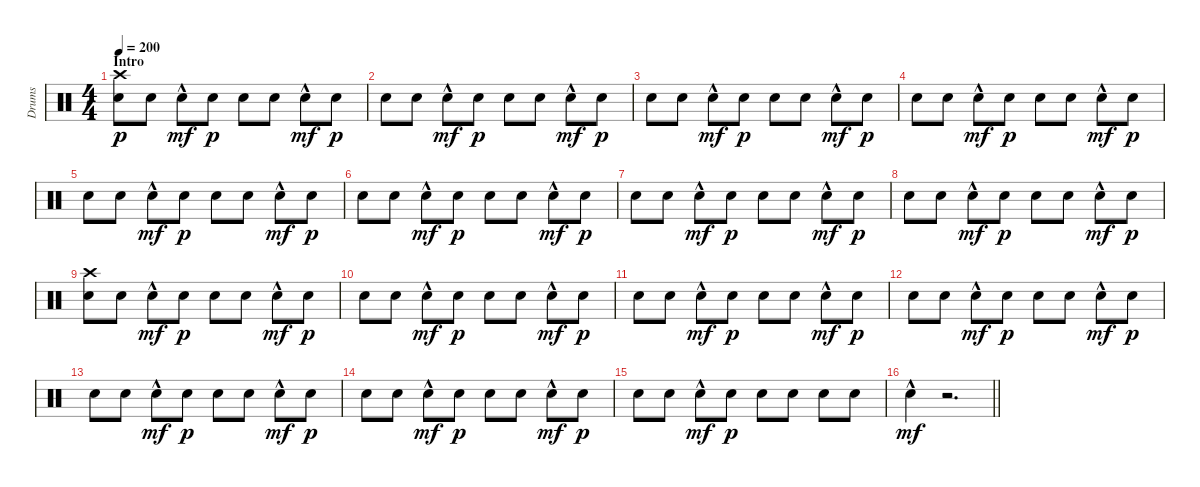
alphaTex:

\track ("Drums" "Drums") {instrument percussion}
\staff {score}
\articulation defaults
\ts (4 4)
\section ("" "Intro")
\tempo 200
\clef neutral
\ks c
("Crash high (hit)" "Electric Snare (hit)").8{dy p} "Electric Snare (hit)".8 "Electric Snare (hit)"{hac}.8{dy mf} "Electric Snare (hit)".8{dy p} "Electric Snare (hit)".8 "Electric Snare (hit)".8 "Electric Snare (hit)"{hac}.8{dy mf} "Electric Snare (hit)".8{dy p} |
"Electric Snare (hit)".8 "Electric Snare (hit)".8 "Electric Snare (hit)"{hac}.8{dy mf} "Electric Snare (hit)".8{dy p} "Electric Snare (hit)".8 "Electric Snare (hit)".8 "Electric Snare (hit)"{hac}.8{dy mf} "Electric Snare (hit)".8{dy p} |
"Electric Snare (hit)".8 "Electric Snare (hit)".8 "Electric Snare (hit)"{hac}.8{dy mf} "Electric Snare (hit)".8{dy p} "Electric Snare (hit)".8 "Electric Snare (hit)".8 "Electric Snare (hit)"{hac}.8{dy mf} "Electric Snare (hit)".8{dy p} |
"Electric Snare (hit)".8 "Electric Snare (hit)".8 "Electric Snare (hit)"{hac}.8{dy mf} "Electric Snare (hit)".8{dy p} "Electric Snare (hit)".8 "Electric Snare (hit)".8 "Electric Snare (hit)"{hac}.8{dy mf} "Electric Snare (hit)".8{dy p} |
"Electric Snare (hit)".8 "Electric Snare (hit)".8 "Electric Snare (hit)"{hac}.8{dy mf} "Electric Snare (hit)".8{dy p} "Electric Snare (hit)".8 "Electric Snare (hit)".8 "Electric Snare (hit)"{hac}.8{dy mf} "Electric Snare (hit)".8{dy p} |
"Electric Snare (hit)".8 "Electric Snare (hit)".8 "Electric Snare (hit)"{hac}.8{dy mf} "Electric Snare (hit)".8{dy p} "Electric Snare (hit)".8 "Electric Snare (hit)".8 "Electric Snare (hit)"{hac}.8{dy mf} "Electric Snare (hit)".8{dy p} |
"Electric Snare (hit)".8 "Electric Snare (hit)".8 "Electric Snare (hit)"{hac}.8{dy mf} "Electric Snare (hit)".8{dy p} "Electric Snare (hit)".8 "Electric Snare (hit)".8 "Electric Snare (hit)"{hac}.8{dy mf} "Electric Snare (hit)".8{dy p} |
"Electric Snare (hit)".8 "Electric Snare (hit)".8 "Electric Snare (hit)"{hac}.8{dy mf} "Electric Snare (hit)".8{dy p} "Electric Snare (hit)".8 "Electric Snare (hit)".8 "Electric Snare (hit)"{hac}.8{dy mf} "Electric Snare (hit)".8{dy p} |
("Crash high (hit)" "Electric Snare (hit)").8 "Electric Snare (hit)".8 "Electric Snare (hit)"{hac}.8{dy mf} "Electric Snare (hit)".8{dy p} "Electric Snare (hit)".8 "Electric Snare (hit)".8 "Electric Snare (hit)"{hac}.8{dy mf} "Electric Snare (hit)".8{dy p} |
"Electric Snare (hit)".8 "Electric Snare (hit)".8 "Electric Snare (hit)"{hac}.8{dy mf} "Electric Snare (hit)".8{dy p} "Electric Snare (hit)".8 "Electric Snare (hit)".8 "Electric Snare (hit)"{hac}.8{dy mf} "Electric Snare (hit)".8{dy p} |
"Electric Snare (hit)".8 "Electric Snare (hit)".8 "Electric Snare (hit)"{hac}.8{dy mf} "Electric Snare (hit)".8{dy p} "Electric Snare (hit)".8 "Electric Snare (hit)".8 "Electric Snare (hit)"{hac}.8{dy mf} "Electric Snare (hit)".8{dy p} |
"Electric Snare (hit)".8 "Electric Snare (hit)".8 "Electric Snare (hit)"{hac}.8{dy mf} "Electric Snare (hit)".8{dy p} "Electric Snare (hit)".8 "Electric Snare (hit)".8 "Electric Snare (hit)"{hac}.8{dy mf} "Electric Snare (hit)".8{dy p} |
"Electric Snare (hit)".8 "Electric Snare (hit)".8 "Electric Snare (hit)"{hac}.8{dy mf} "Electric Snare (hit)".8{dy p} "Electric Snare (hit)".8 "Electric Snare (hit)".8 "Electric Snare (hit)"{hac}.8{dy mf} "Electric Snare (hit)".8{dy p} |
"Electric Snare (hit)".8 "Electric Snare (hit)".8 "Electric Snare (hit)"{hac}.8{dy mf} "Electric Snare (hit)".8{dy p} "Electric Snare (hit)".8 "Electric Snare (hit)".8 "Electric Snare (hit)"{hac}.8{dy mf} "Electric Snare (hit)".8{dy p} |
"Electric Snare (hit)".8 "Electric Snare (hit)".8 "Electric Snare (hit)"{hac}.8{dy mf} "Electric Snare (hit)".8{dy p} "Electric Snare (hit)".8 "Electric Snare (hit)".8 "Electric Snare (hit)".8 "Electric Snare (hit)".8 |
\barLineRight lightlight "Electric Snare (hit)"{hac}.4{dy mf}
r.2{d}
